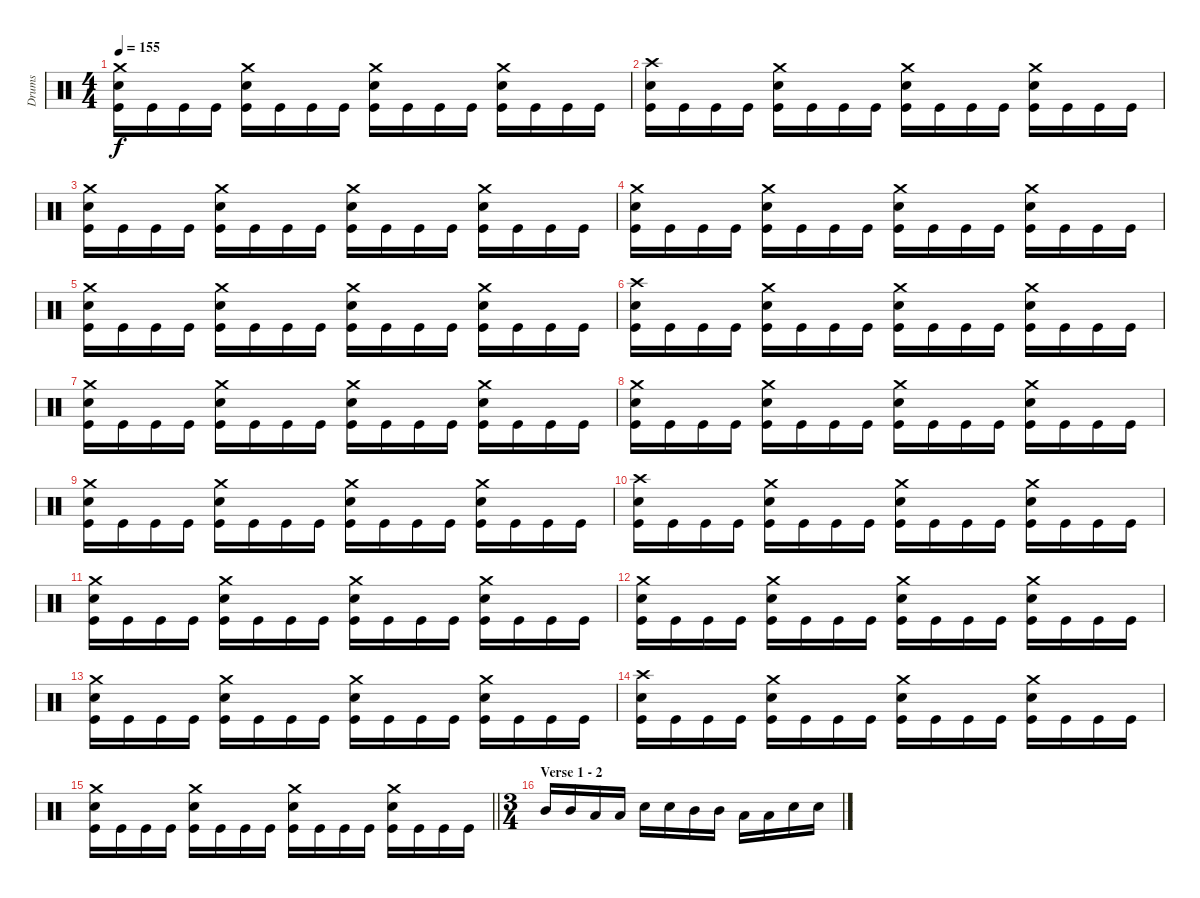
\track ("Drums" "Drums") {instrument percussion}
\staff {score}
\articulation defaults
\ts (4 4)
\tempo 155
\clef neutral
\ks c
("Crash medium (hit)" "Snare (hit) 2" "Kick (hit)").16{dy f} "Kick (hit)".16 "Kick (hit)".16 "Kick (hit)".16 ("Crash medium (hit)" "Snare (hit) 2" "Kick (hit)").16 "Kick (hit)".16 "Kick (hit)".16 "Kick (hit)".16 ("Crash medium (hit)" "Snare (hit) 2" "Kick (hit)").16 "Kick (hit)".16 "Kick (hit)".16 "Kick (hit)".16 ("Crash medium (hit)" "Snare (hit) 2" "Kick (hit)").16 "Kick (hit)".16 "Kick (hit)".16 "Kick (hit)".16 |
("Crash high (hit)" "Snare (hit) 2" "Kick (hit)").16 "Kick (hit)".16 "Kick (hit)".16 "Kick (hit)".16 ("Crash medium (hit)" "Snare (hit) 2" "Kick (hit)").16 "Kick (hit)".16 "Kick (hit)".16 "Kick (hit)".16 ("Crash medium (hit)" "Snare (hit) 2" "Kick (hit)").16 "Kick (hit)".16 "Kick (hit)".16 "Kick (hit)".16 ("Crash medium (hit)" "Snare (hit) 2" "Kick (hit)").16 "Kick (hit)".16 "Kick (hit)".16 "Kick (hit)".16 |
("Crash medium (hit)" "Snare (hit) 2" "Kick (hit)").16 "Kick (hit)".16 "Kick (hit)".16 "Kick (hit)".16 ("Crash medium (hit)" "Snare (hit) 2" "Kick (hit)").16 "Kick (hit)".16 "Kick (hit)".16 "Kick (hit)".16 ("Crash medium (hit)" "Snare (hit) 2" "Kick (hit)").16 "Kick (hit)".16 "Kick (hit)".16 "Kick (hit)".16 ("Crash medium (hit)" "Snare (hit) 2" "Kick (hit)").16 "Kick (hit)".16 "Kick (hit)".16 "Kick (hit)".16 |
("Crash medium (hit)" "Snare (hit) 2" "Kick (hit)").16 "Kick (hit)".16 "Kick (hit)".16 "Kick (hit)".16 ("Crash medium (hit)" "Snare (hit) 2" "Kick (hit)").16 "Kick (hit)".16 "Kick (hit)".16 "Kick (hit)".16 ("Crash medium (hit)" "Snare (hit) 2" "Kick (hit)").16 "Kick (hit)".16 "Kick (hit)".16 "Kick (hit)".16 ("Crash medium (hit)" "Snare (hit) 2" "Kick (hit)").16 "Kick (hit)".16 "Kick (hit)".16 "Kick (hit)".16 |
("Crash medium (hit)" "Snare (hit) 2" "Kick (hit)").16 "Kick (hit)".16 "Kick (hit)".16 "Kick (hit)".16 ("Crash medium (hit)" "Snare (hit) 2" "Kick (hit)").16 "Kick (hit)".16 "Kick (hit)".16 "Kick (hit)".16 ("Crash medium (hit)" "Snare (hit) 2" "Kick (hit)").16 "Kick (hit)".16 "Kick (hit)".16 "Kick (hit)".16 ("Crash medium (hit)" "Snare (hit) 2" "Kick (hit)").16 "Kick (hit)".16 "Kick (hit)".16 "Kick (hit)".16 |
("Crash high (hit)" "Snare (hit) 2" "Kick (hit)").16 "Kick (hit)".16 "Kick (hit)".16 "Kick (hit)".16 ("Crash medium (hit)" "Snare (hit) 2" "Kick (hit)").16 "Kick (hit)".16 "Kick (hit)".16 "Kick (hit)".16 ("Crash medium (hit)" "Snare (hit) 2" "Kick (hit)").16 "Kick (hit)".16 "Kick (hit)".16 "Kick (hit)".16 ("Crash medium (hit)" "Snare (hit) 2" "Kick (hit)").16 "Kick (hit)".16 "Kick (hit)".16 "Kick (hit)".16 |
("Crash medium (hit)" "Snare (hit) 2" "Kick (hit)").16 "Kick (hit)".16 "Kick (hit)".16 "Kick (hit)".16 ("Crash medium (hit)" "Snare (hit) 2" "Kick (hit)").16 "Kick (hit)".16 "Kick (hit)".16 "Kick (hit)".16 ("Crash medium (hit)" "Snare (hit) 2" "Kick (hit)").16 "Kick (hit)".16 "Kick (hit)".16 "Kick (hit)".16 ("Crash medium (hit)" "Snare (hit) 2" "Kick (hit)").16 "Kick (hit)".16 "Kick (hit)".16 "Kick (hit)".16 |
("Crash medium (hit)" "Snare (hit) 2" "Kick (hit)").16 "Kick (hit)".16 "Kick (hit)".16 "Kick (hit)".16 ("Crash medium (hit)" "Snare (hit) 2" "Kick (hit)").16 "Kick (hit)".16 "Kick (hit)".16 "Kick (hit)".16 ("Crash medium (hit)" "Snare (hit) 2" "Kick (hit)").16 "Kick (hit)".16 "Kick (hit)".16 "Kick (hit)".16 ("Crash medium (hit)" "Snare (hit) 2" "Kick (hit)").16 "Kick (hit)".16 "Kick (hit)".16 "Kick (hit)".16 |
("Crash medium (hit)" "Snare (hit) 2" "Kick (hit)").16 "Kick (hit)".16 "Kick (hit)".16 "Kick (hit)".16 ("Crash medium (hit)" "Snare (hit) 2" "Kick (hit)").16 "Kick (hit)".16 "Kick (hit)".16 "Kick (hit)".16 ("Crash medium (hit)" "Snare (hit) 2" "Kick (hit)").16 "Kick (hit)".16 "Kick (hit)".16 "Kick (hit)".16 ("Crash medium (hit)" "Snare (hit) 2" "Kick (hit)").16 "Kick (hit)".16 "Kick (hit)".16 "Kick (hit)".16 |
("Crash high (hit)" "Snare (hit) 2" "Kick (hit)").16 "Kick (hit)".16 "Kick (hit)".16 "Kick (hit)".16 ("Crash medium (hit)" "Snare (hit) 2" "Kick (hit)").16 "Kick (hit)".16 "Kick (hit)".16 "Kick (hit)".16 ("Crash medium (hit)" "Snare (hit) 2" "Kick (hit)").16 "Kick (hit)".16 "Kick (hit)".16 "Kick (hit)".16 ("Crash medium (hit)" "Snare (hit) 2" "Kick (hit)").16 "Kick (hit)".16 "Kick (hit)".16 "Kick (hit)".16 |
("Crash medium (hit)" "Snare (hit) 2" "Kick (hit)").16 "Kick (hit)".16 "Kick (hit)".16 "Kick (hit)".16 ("Crash medium (hit)" "Snare (hit) 2" "Kick (hit)").16 "Kick (hit)".16 "Kick (hit)".16 "Kick (hit)".16 ("Crash medium (hit)" "Snare (hit) 2" "Kick (hit)").16 "Kick (hit)".16 "Kick (hit)".16 "Kick (hit)".16 ("Crash medium (hit)" "Snare (hit) 2" "Kick (hit)").16 "Kick (hit)".16 "Kick (hit)".16 "Kick (hit)".16 |
("Crash medium (hit)" "Snare (hit) 2" "Kick (hit)").16 "Kick (hit)".16 "Kick (hit)".16 "Kick (hit)".16 ("Crash medium (hit)" "Snare (hit) 2" "Kick (hit)").16 "Kick (hit)".16 "Kick (hit)".16 "Kick (hit)".16 ("Crash medium (hit)" "Snare (hit) 2" "Kick (hit)").16 "Kick (hit)".16 "Kick (hit)".16 "Kick (hit)".16 ("Crash medium (hit)" "Snare (hit) 2" "Kick (hit)").16 "Kick (hit)".16 "Kick (hit)".16 "Kick (hit)".16 |
("Crash medium (hit)" "Snare (hit) 2" "Kick (hit)").16 "Kick (hit)".16 "Kick (hit)".16 "Kick (hit)".16 ("Crash medium (hit)" "Snare (hit) 2" "Kick (hit)").16 "Kick (hit)".16 "Kick (hit)".16 "Kick (hit)".16 ("Crash medium (hit)" "Snare (hit) 2" "Kick (hit)").16 "Kick (hit)".16 "Kick (hit)".16 "Kick (hit)".16 ("Crash medium (hit)" "Snare (hit) 2" "Kick (hit)").16 "Kick (hit)".16 "Kick (hit)".16 "Kick (hit)".16 |
("Crash high (hit)" "Snare (hit) 2" "Kick (hit)").16 "Kick (hit)".16 "Kick (hit)".16 "Kick (hit)".16 ("Crash medium (hit)" "Snare (hit) 2" "Kick (hit)").16 "Kick (hit)".16 "Kick (hit)".16 "Kick (hit)".16 ("Crash medium (hit)" "Snare (hit) 2" "Kick (hit)").16 "Kick (hit)".16 "Kick (hit)".16 "Kick (hit)".16 ("Crash medium (hit)" "Snare (hit) 2" "Kick (hit)").16 "Kick (hit)".16 "Kick (hit)".16 "Kick (hit)".16 |
\barLineRight lightlight
("Crash medium (hit)" "Snare (hit) 2" "Kick (hit)").16 "Kick (hit)".16 "Kick (hit)".16 "Kick (hit)".16 ("Crash medium (hit)" "Snare (hit) 2" "Kick (hit)").16 "Kick (hit)".16 "Kick (hit)".16 "Kick (hit)".16 ("Crash medium (hit)" "Snare (hit) 2" "Kick (hit)").16 "Kick (hit)".16 "Kick (hit)".16 "Kick (hit)".16 ("Crash medium (hit)" "Snare (hit) 2" "Kick (hit)").16 "Kick (hit)".16 "Kick (hit)".16 "Kick (hit)".16 |
\ts (3 4)
\section ("" "Verse 1 - 2")
"Mid Tom (hit)".16 "Mid Tom (hit)".16 "Low Tom (hit)".16 "Low Tom (hit)".16 "Snare (hit) 2".16 "Snare (hit) 2".16 "Mid Tom (hit)".16 "Mid Tom (hit)".16 "Low Tom (hit)".16 "Low Tom (hit)".16 "Snare (hit) 2".16 "Snare (hit) 2".16
